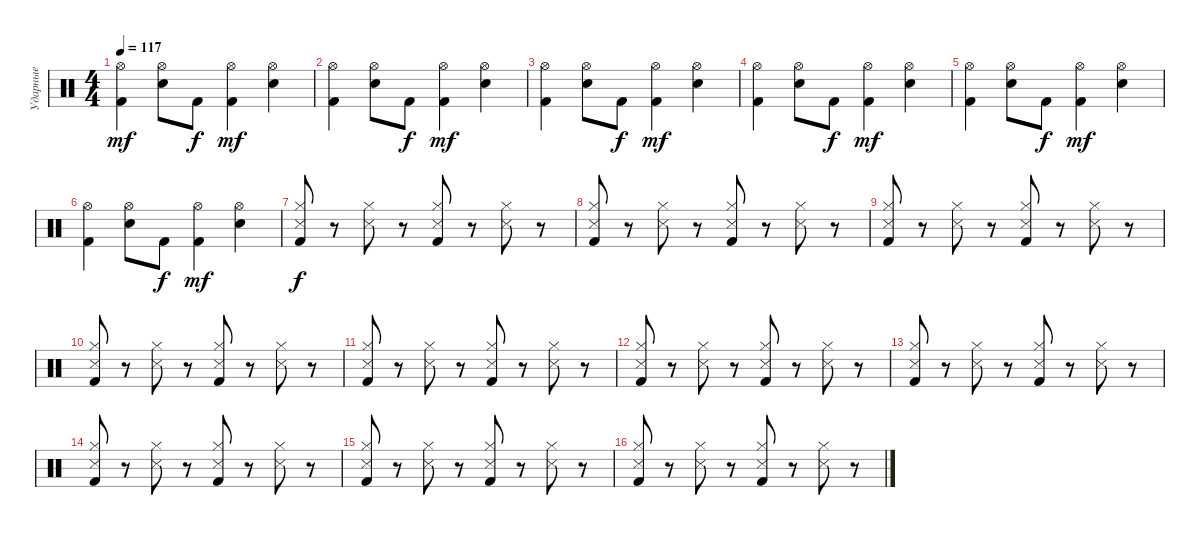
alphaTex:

\track ("Ударные" "Ударные") {instrument percussion}
\staff {score}
\articulation defaults
\ts (4 4)
\tempo 117
\clef neutral
\ks c
("Hi-Hat (open)" "Kick (hit) 2").4{dy mf} ("Hi-Hat (open)" "Electric Snare (hit)").8 "Kick (hit) 2".8{dy f} ("Hi-Hat (open)" "Kick (hit) 2").4{dy mf} ("Hi-Hat (open)" "Electric Snare (hit)").4 |
("Hi-Hat (open)" "Kick (hit) 2").4 ("Hi-Hat (open)" "Electric Snare (hit)").8 "Kick (hit) 2".8{dy f} ("Hi-Hat (open)" "Kick (hit) 2").4{dy mf} ("Hi-Hat (open)" "Electric Snare (hit)").4 |
("Hi-Hat (open)" "Kick (hit) 2").4 ("Hi-Hat (open)" "Electric Snare (hit)").8 "Kick (hit) 2".8{dy f} ("Hi-Hat (open)" "Kick (hit) 2").4{dy mf} ("Hi-Hat (open)" "Electric Snare (hit)").4 |
("Hi-Hat (open)" "Kick (hit) 2").4 ("Hi-Hat (open)" "Electric Snare (hit)").8 "Kick (hit) 2".8{dy f} ("Hi-Hat (open)" "Kick (hit) 2").4{dy mf} ("Hi-Hat (open)" "Electric Snare (hit)").4 |
("Hi-Hat (open)" "Kick (hit) 2").4 ("Hi-Hat (open)" "Electric Snare (hit)").8 "Kick (hit) 2".8{dy f} ("Hi-Hat (open)" "Kick (hit) 2").4{dy mf} ("Hi-Hat (open)" "Electric Snare (hit)").4 |
("Hi-Hat (open)" "Kick (hit) 2").4 ("Hi-Hat (open)" "Electric Snare (hit)").8 "Kick (hit) 2".8{dy f} ("Hi-Hat (open)" "Kick (hit) 2").4{dy mf} ("Hi-Hat (open)" "Electric Snare (hit)").4 |
("Hi-Hat (closed)" "Snare (side stick) 3" "Kick (hit) 2").8{dy f} r.8 ("Hi-Hat (closed)" "Snare (side stick) 3").8 r.8 ("Hi-Hat (closed)" "Snare (side stick) 3" "Kick (hit) 2").8 r.8 ("Hi-Hat (closed)" "Snare (side stick) 3").8 r.8 |
("Hi-Hat (closed)" "Snare (side stick) 3" "Kick (hit) 2").8 r.8 ("Hi-Hat (closed)" "Snare (side stick) 3").8 r.8 ("Hi-Hat (closed)" "Snare (side stick) 3" "Kick (hit) 2").8 r.8 ("Hi-Hat (closed)" "Snare (side stick) 3").8 r.8 |
("Hi-Hat (closed)" "Snare (side stick) 3" "Kick (hit) 2").8 r.8 ("Hi-Hat (closed)" "Snare (side stick) 3").8 r.8 ("Hi-Hat (closed)" "Snare (side stick) 3" "Kick (hit) 2").8 r.8 ("Hi-Hat (closed)" "Snare (side stick) 3").8 r.8 |
("Hi-Hat (closed)" "Snare (side stick) 3" "Kick (hit) 2").8 r.8 ("Hi-Hat (closed)" "Snare (side stick) 3").8 r.8 ("Hi-Hat (closed)" "Snare (side stick) 3" "Kick (hit) 2").8 r.8 ("Hi-Hat (closed)" "Snare (side stick) 3").8 r.8 |
("Hi-Hat (closed)" "Snare (side stick) 3" "Kick (hit) 2").8 r.8 ("Hi-Hat (closed)" "Snare (side stick) 3").8 r.8 ("Hi-Hat (closed)" "Snare (side stick) 3" "Kick (hit) 2").8 r.8 ("Hi-Hat (closed)" "Snare (side stick) 3").8 r.8 |
("Hi-Hat (closed)" "Snare (side stick) 3" "Kick (hit) 2").8 r.8 ("Hi-Hat (closed)" "Snare (side stick) 3").8 r.8 ("Hi-Hat (closed)" "Snare (side stick) 3" "Kick (hit) 2").8 r.8 ("Hi-Hat (closed)" "Snare (side stick) 3").8 r.8 |
("Hi-Hat (closed)" "Snare (side stick) 3" "Kick (hit) 2").8 r.8 ("Hi-Hat (closed)" "Snare (side stick) 3").8 r.8 ("Hi-Hat (closed)" "Snare (side stick) 3" "Kick (hit) 2").8 r.8 ("Hi-Hat (closed)" "Snare (side stick) 3").8 r.8 |
("Hi-Hat (closed)" "Snare (side stick) 3" "Kick (hit) 2").8 r.8 ("Hi-Hat (closed)" "Snare (side stick) 3").8 r.8 ("Hi-Hat (closed)" "Snare (side stick) 3" "Kick (hit) 2").8 r.8 ("Hi-Hat (closed)" "Snare (side stick) 3").8 r.8 |
("Hi-Hat (closed)" "Snare (side stick) 3" "Kick (hit) 2").8 r.8 ("Hi-Hat (closed)" "Snare (side stick) 3").8 r.8 ("Hi-Hat (closed)" "Snare (side stick) 3" "Kick (hit) 2").8 r.8 ("Hi-Hat (closed)" "Snare (side stick) 3").8 r.8 |
("Hi-Hat (closed)" "Snare (side stick) 3" "Kick (hit) 2").8 r.8 ("Hi-Hat (closed)" "Snare (side stick) 3").8 r.8 ("Hi-Hat (closed)" "Snare (side stick) 3" "Kick (hit) 2").8 r.8 ("Hi-Hat (closed)" "Snare (side stick) 3").8 r.8
